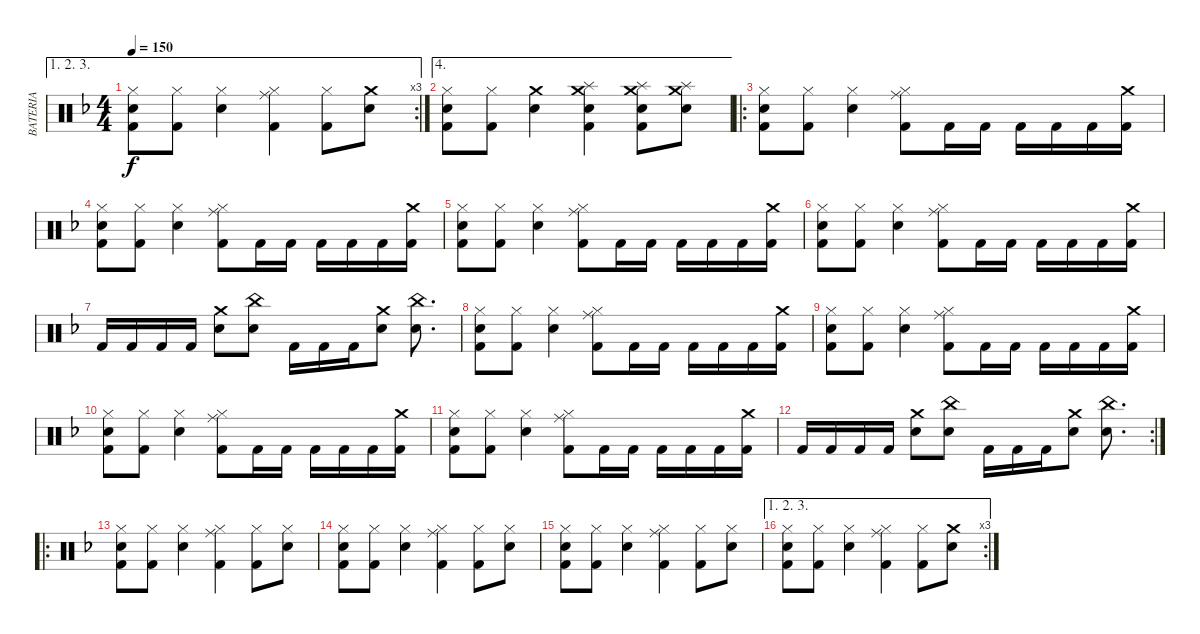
\track ("BATERIA" "BATERIA") {instrument percussion}
\staff {score}
\articulation defaults
\ae (1 2 3)
\rc 3
\ts (4 4)
\tempo 150
\clef neutral
\ks dminor
("Hi-Hat (closed)" "Snare (hit) 2" "Kick (hit) 2").8{dy f} ("Hi-Hat (closed)" "Kick (hit) 2").8 ("Hi-Hat (closed)" "Snare (hit) 2").4 ("Hi-Hat (closed)" "Ride (middle)" "Kick (hit) 2").4 ("Hi-Hat (closed)" "Kick (hit) 2").8 ("Crash medium (hit)" "Snare (hit) 2").8 |
\ae 4
("Hi-Hat (closed)" "Snare (hit) 2" "Kick (hit) 2").8 ("Hi-Hat (closed)" "Kick (hit) 2").8 ("Crash medium (hit)" "Snare (hit) 2").4 ("Splash (hit)" "Crash medium (hit)" "Snare (hit) 2" "Kick (hit) 2").4 ("Splash (hit)" "Crash medium (hit)" "Snare (hit) 2" "Kick (hit) 2").8 ("Splash (hit)" "Crash medium (hit)" "Snare (hit) 2").8 |
\ro
("Hi-Hat (closed)" "Snare (hit) 2" "Kick (hit) 2").8 ("Hi-Hat (closed)" "Kick (hit) 2").8 ("Hi-Hat (closed)" "Snare (hit) 2").4 ("Hi-Hat (closed)" "Ride (middle)" "Kick (hit) 2").8 "Kick (hit) 2".16 "Kick (hit) 2".16 "Kick (hit) 2".16 "Kick (hit) 2".16 "Kick (hit) 2".16 ("Crash medium (hit)" "Kick (hit) 2").16 |
("Hi-Hat (closed)" "Snare (hit) 2" "Kick (hit) 2").8 ("Hi-Hat (closed)" "Kick (hit) 2").8 ("Hi-Hat (closed)" "Snare (hit) 2").4 ("Hi-Hat (closed)" "Ride (middle)" "Kick (hit) 2").8 "Kick (hit) 2".16 "Kick (hit) 2".16 "Kick (hit) 2".16 "Kick (hit) 2".16 "Kick (hit) 2".16 ("Crash medium (hit)" "Kick (hit) 2").16 |
("Hi-Hat (closed)" "Snare (hit) 2" "Kick (hit) 2").8 ("Hi-Hat (closed)" "Kick (hit) 2").8 ("Hi-Hat (closed)" "Snare (hit) 2").4 ("Hi-Hat (closed)" "Ride (middle)" "Kick (hit) 2").8 "Kick (hit) 2".16 "Kick (hit) 2".16 "Kick (hit) 2".16 "Kick (hit) 2".16 "Kick (hit) 2".16 ("Crash medium (hit)" "Kick (hit) 2").16 |
("Hi-Hat (closed)" "Snare (hit) 2" "Kick (hit) 2").8 ("Hi-Hat (closed)" "Kick (hit) 2").8 ("Hi-Hat (closed)" "Snare (hit) 2").4 ("Hi-Hat (closed)" "Ride (middle)" "Kick (hit) 2").8 "Kick (hit) 2".16 "Kick (hit) 2".16 "Kick (hit) 2".16 "Kick (hit) 2".16 "Kick (hit) 2".16 ("Crash medium (hit)" "Kick (hit) 2").16 |
"Kick (hit) 2".16 "Kick (hit) 2".16 "Kick (hit) 2".16 "Kick (hit) 2".16 ("Crash medium (hit)" "Snare (hit) 2").8 ("China (hit)" "Snare (hit) 2").8 "Kick (hit) 2".16 "Kick (hit) 2".16 "Kick (hit) 2".16 ("Crash medium (hit)" "Snare (hit) 2").8 ("China (hit)" "Snare (hit) 2").8{d} |
("Hi-Hat (closed)" "Snare (hit) 2" "Kick (hit) 2").8 ("Hi-Hat (closed)" "Kick (hit) 2").8 ("Hi-Hat (closed)" "Snare (hit) 2").4 ("Hi-Hat (closed)" "Ride (middle)" "Kick (hit) 2").8 "Kick (hit) 2".16 "Kick (hit) 2".16 "Kick (hit) 2".16 "Kick (hit) 2".16 "Kick (hit) 2".16 ("Crash medium (hit)" "Kick (hit) 2").16 |
("Hi-Hat (closed)" "Snare (hit) 2" "Kick (hit) 2").8 ("Hi-Hat (closed)" "Kick (hit) 2").8 ("Hi-Hat (closed)" "Snare (hit) 2").4 ("Hi-Hat (closed)" "Ride (middle)" "Kick (hit) 2").8 "Kick (hit) 2".16 "Kick (hit) 2".16 "Kick (hit) 2".16 "Kick (hit) 2".16 "Kick (hit) 2".16 ("Crash medium (hit)" "Kick (hit) 2").16 |
("Hi-Hat (closed)" "Snare (hit) 2" "Kick (hit) 2").8 ("Hi-Hat (closed)" "Kick (hit) 2").8 ("Hi-Hat (closed)" "Snare (hit) 2").4 ("Hi-Hat (closed)" "Ride (middle)" "Kick (hit) 2").8 "Kick (hit) 2".16 "Kick (hit) 2".16 "Kick (hit) 2".16 "Kick (hit) 2".16 "Kick (hit) 2".16 ("Crash medium (hit)" "Kick (hit) 2").16 |
("Hi-Hat (closed)" "Snare (hit) 2" "Kick (hit) 2").8 ("Hi-Hat (closed)" "Kick (hit) 2").8 ("Hi-Hat (closed)" "Snare (hit) 2").4 ("Hi-Hat (closed)" "Ride (middle)" "Kick (hit) 2").8 "Kick (hit) 2".16 "Kick (hit) 2".16 "Kick (hit) 2".16 "Kick (hit) 2".16 "Kick (hit) 2".16 ("Crash medium (hit)" "Kick (hit) 2").16 |
\rc 2 "Kick (hit) 2".16 "Kick (hit) 2".16 "Kick (hit) 2".16 "Kick (hit) 2".16
("Crash medium (hit)" "Snare (hit) 2").8 ("China (hit)" "Snare (hit) 2").8 "Kick (hit) 2".16 "Kick (hit) 2".16 "Kick (hit) 2".16 ("Crash medium (hit)" "Snare (hit) 2").8 ("China (hit)" "Snare (hit) 2").8{d} |
\ro
("Hi-Hat (closed)" "Snare (hit) 2" "Kick (hit) 2").8 ("Hi-Hat (closed)" "Kick (hit) 2").8 ("Hi-Hat (closed)" "Snare (hit) 2").4 ("Hi-Hat (closed)" "Ride (middle)" "Kick (hit) 2").4 ("Hi-Hat (closed)" "Kick (hit) 2").8 ("Hi-Hat (closed)" "Snare (hit) 2").8 |
("Hi-Hat (closed)" "Snare (hit) 2" "Kick (hit) 2").8 ("Hi-Hat (closed)" "Kick (hit) 2").8 ("Hi-Hat (closed)" "Snare (hit) 2").4 ("Hi-Hat (closed)" "Ride (middle)" "Kick (hit) 2").4 ("Hi-Hat (closed)" "Kick (hit) 2").8 ("Hi-Hat (closed)" "Snare (hit) 2").8 |
("Hi-Hat (closed)" "Snare (hit) 2" "Kick (hit) 2").8 ("Hi-Hat (closed)" "Kick (hit) 2").8 ("Hi-Hat (closed)" "Snare (hit) 2").4 ("Hi-Hat (closed)" "Ride (middle)" "Kick (hit) 2").4 ("Hi-Hat (closed)" "Kick (hit) 2").8 ("Hi-Hat (closed)" "Snare (hit) 2").8 |
\ae (1 2 3)
\rc 3
("Hi-Hat (closed)" "Snare (hit) 2" "Kick (hit) 2").8 ("Hi-Hat (closed)" "Kick (hit) 2").8 ("Hi-Hat (closed)" "Snare (hit) 2").4 ("Hi-Hat (closed)" "Ride (middle)" "Kick (hit) 2").4 ("Hi-Hat (closed)" "Kick (hit) 2").8 ("Crash medium (hit)" "Snare (hit) 2").8
